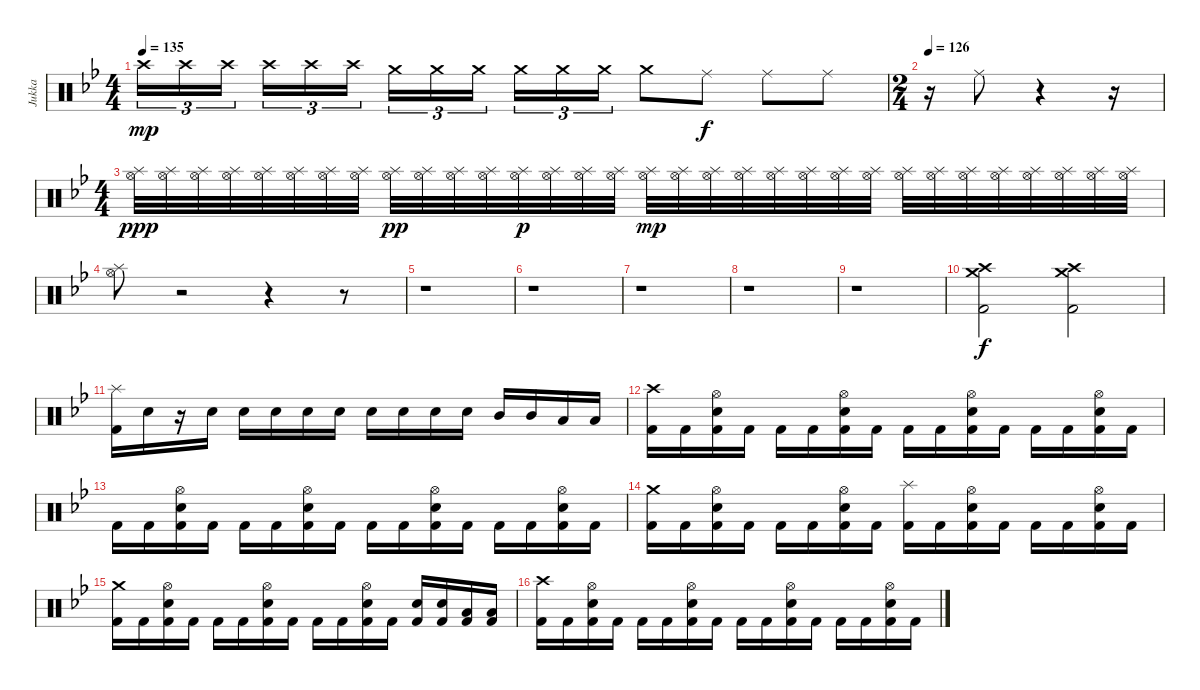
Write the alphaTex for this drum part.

\track ("Jukka" "Jukka") {instrument percussion}
\staff {score}
\articulation defaults
\ts (4 4)
\tempo 135
\clef neutral
\ks gminor "Crash high (hit)".16{tu (3 2) dy mp} "Crash high (hit)".16{tu (3 2)} "Crash high (hit)".16{tu (3 2)} "Crash high (hit)".16{tu (3 2)} "Crash high (hit)".16{tu (3 2)} "Crash high (hit)".16{tu (3 2)} "Crash medium (hit)".16{tu (3 2)} "Crash medium (hit)".16{tu (3 2)} "Crash medium (hit)".16{tu (3 2)} "Crash medium (hit)".16{tu (3 2)} "Crash medium (hit)".16{tu (3 2)} "Crash medium (hit)".16{tu (3 2)} "Crash medium (hit)".8 "Ride (middle)".8{dy f} "Ride (middle)".8 "Ride (middle)".8
|
\ts (2 4)
\tempo 126
r.16 "Ride (middle)".8 r.4 r.16 |
\ts (4 4)
("Splash (hit)" "Hi-Hat (open)").32{dy ppp} ("Splash (hit)" "Hi-Hat (open)").32 ("Splash (hit)" "Hi-Hat (open)").32 ("Splash (hit)" "Hi-Hat (open)").32 ("Splash (hit)" "Hi-Hat (open)").32 ("Splash (hit)" "Hi-Hat (open)").32 ("Splash (hit)" "Hi-Hat (open)").32 ("Splash (hit)" "Hi-Hat (open)").32 ("Splash (hit)" "Hi-Hat (open)").32{dy pp} ("Splash (hit)" "Hi-Hat (open)").32 ("Splash (hit)" "Hi-Hat (open)").32 ("Splash (hit)" "Hi-Hat (open)").32 ("Splash (hit)" "Hi-Hat (open)").32{dy p} ("Splash (hit)" "Hi-Hat (open)").32 ("Splash (hit)" "Hi-Hat (open)").32 ("Splash (hit)" "Hi-Hat (open)").32 ("Splash (hit)" "Hi-Hat (open)").32{dy mp} ("Splash (hit)" "Hi-Hat (open)").32 ("Splash (hit)" "Hi-Hat (open)").32 ("Splash (hit)" "Hi-Hat (open)").32 ("Splash (hit)" "Hi-Hat (open)").32 ("Splash (hit)" "Hi-Hat (open)").32 ("Splash (hit)" "Hi-Hat (open)").32 ("Splash (hit)" "Hi-Hat (open)").32 ("Splash (hit)" "Hi-Hat (open)").32 ("Splash (hit)" "Hi-Hat (open)").32 ("Splash (hit)" "Hi-Hat (open)").32 ("Splash (hit)" "Hi-Hat (open)").32 ("Splash (hit)" "Hi-Hat (open)").32 ("Splash (hit)" "Hi-Hat (open)").32 ("Splash (hit)" "Hi-Hat (open)").32 ("Splash (hit)" "Hi-Hat (open)").32 |
("Splash (hit)" "Hi-Hat (open)").8 r.2 r.4 r.8 |
r.1 |
r.1 |
r.1 |
r.1 |
r.1 |
("Crash medium (hit)" "Crash high (hit)" "Kick (hit) 2").2{dy f} ("Crash medium (hit)" "Crash high (hit)" "Kick (hit) 2").2 |
("Splash (hit)" "Kick (hit) 2").16 "Electric Snare (hit)".16 r.16 "Electric Snare (hit)".16 "Electric Snare (hit)".16 "Electric Snare (hit)".16 "Electric Snare (hit)".16 "Electric Snare (hit)".16 "Electric Snare (hit)".16 "Electric Snare (hit)".16 "Electric Snare (hit)".16 "Electric Snare (hit)".16 "Mid Tom (hit)".16 "Mid Tom (hit)".16 "Low Tom (hit)".16 "Low Tom (hit)".16 |
("Crash high (hit)" "Kick (hit) 2").16 "Kick (hit) 2".16 ("Hi-Hat (open)" "Electric Snare (hit)" "Kick (hit) 2").16 "Kick (hit) 2".16 "Kick (hit) 2".16 "Kick (hit) 2".16 ("Hi-Hat (open)" "Electric Snare (hit)" "Kick (hit) 2").16 "Kick (hit) 2".16 "Kick (hit) 2".16 "Kick (hit) 2".16 ("Hi-Hat (open)" "Electric Snare (hit)" "Kick (hit) 2").16 "Kick (hit) 2".16 "Kick (hit) 2".16 "Kick (hit) 2".16 ("Hi-Hat (open)" "Electric Snare (hit)" "Kick (hit) 2").16 "Kick (hit) 2".16 |
"Kick (hit) 2".16 "Kick (hit) 2".16 ("Hi-Hat (open)" "Electric Snare (hit)" "Kick (hit) 2").16 "Kick (hit) 2".16 "Kick (hit) 2".16 "Kick (hit) 2".16 ("Hi-Hat (open)" "Electric Snare (hit)" "Kick (hit) 2").16 "Kick (hit) 2".16 "Kick (hit) 2".16 "Kick (hit) 2".16 ("Hi-Hat (open)" "Electric Snare (hit)" "Kick (hit) 2").16 "Kick (hit) 2".16 "Kick (hit) 2".16 "Kick (hit) 2".16 ("Hi-Hat (open)" "Electric Snare (hit)" "Kick (hit) 2").16 "Kick (hit) 2".16 |
("Crash medium (hit)" "Kick (hit) 2").16 "Kick (hit) 2".16 ("Hi-Hat (open)" "Electric Snare (hit)" "Kick (hit) 2").16 "Kick (hit) 2".16 "Kick (hit) 2".16 "Kick (hit) 2".16 ("Hi-Hat (open)" "Electric Snare (hit)" "Kick (hit) 2").16 "Kick (hit) 2".16 ("Splash (hit)" "Kick (hit) 2").16 "Kick (hit) 2".16 ("Hi-Hat (open)" "Electric Snare (hit)" "Kick (hit) 2").16 "Kick (hit) 2".16 "Kick (hit) 2".16 "Kick (hit) 2".16 ("Hi-Hat (open)" "Electric Snare (hit)" "Kick (hit) 2").16 "Kick (hit) 2".16 |
("Crash medium (hit)" "Kick (hit) 2").16 "Kick (hit) 2".16 ("Hi-Hat (open)" "Electric Snare (hit)" "Kick (hit) 2").16 "Kick (hit) 2".16 "Kick (hit) 2".16 "Kick (hit) 2".16 ("Hi-Hat (open)" "Electric Snare (hit)" "Kick (hit) 2").16 "Kick (hit) 2".16 "Kick (hit) 2".16 "Kick (hit) 2".16 ("Hi-Hat (open)" "Electric Snare (hit)" "Kick (hit) 2").16 "Kick (hit) 2".16 ("Electric Snare (hit)" "Kick (hit) 2").16 ("Electric Snare (hit)" "Kick (hit) 2").16 ("Low Tom (hit)" "Kick (hit) 2").16 ("Low Tom (hit)" "Kick (hit) 2").16 |
("Crash high (hit)" "Kick (hit) 2").16 "Kick (hit) 2".16 ("Hi-Hat (open)" "Electric Snare (hit)" "Kick (hit) 2").16 "Kick (hit) 2".16 "Kick (hit) 2".16 "Kick (hit) 2".16 ("Hi-Hat (open)" "Electric Snare (hit)" "Kick (hit) 2").16 "Kick (hit) 2".16 "Kick (hit) 2".16 "Kick (hit) 2".16 ("Hi-Hat (open)" "Electric Snare (hit)" "Kick (hit) 2").16 "Kick (hit) 2".16 "Kick (hit) 2".16 "Kick (hit) 2".16 ("Hi-Hat (open)" "Electric Snare (hit)" "Kick (hit) 2").16 "Kick (hit) 2".16
